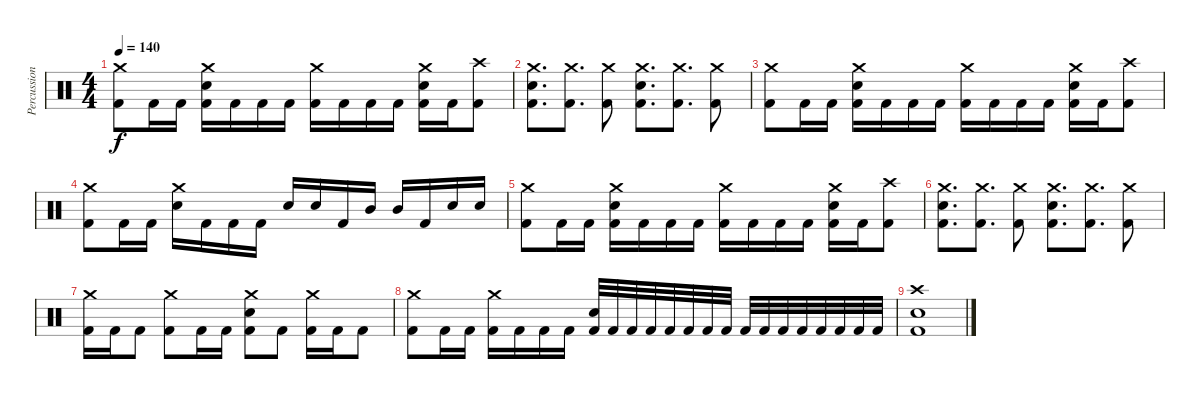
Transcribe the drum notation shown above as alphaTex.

\track ("Percussion" "Percussion") {instrument percussion}
\staff {score}
\articulation defaults
\ts (4 4)
\tempo 140
\clef neutral
\ks c
("Crash medium (hit)" "Kick (hit) 2").8{dy f} "Kick (hit) 2".16 "Kick (hit) 2".16 ("Crash medium (hit)" "Electric Snare (hit)" "Kick (hit) 2").16 "Kick (hit) 2".16 "Kick (hit) 2".16 "Kick (hit) 2".16 ("Crash medium (hit)" "Kick (hit) 2").16 "Kick (hit) 2".16 "Kick (hit) 2".16 "Kick (hit) 2".16 ("Crash medium (hit)" "Electric Snare (hit)" "Kick (hit) 2").16 "Kick (hit) 2".16 ("Crash high (hit)" "Kick (hit) 2").8 |
("Crash medium (hit)" "Electric Snare (hit)" "Kick (hit) 2").8{d} ("Crash medium (hit)" "Kick (hit) 2").8{d} ("Crash medium (hit)" "Kick (hit) 2").8 ("Crash medium (hit)" "Electric Snare (hit)" "Kick (hit) 2").8{d} ("Crash medium (hit)" "Kick (hit) 2").8{d} ("Crash medium (hit)" "Kick (hit) 2").8 |
("Crash medium (hit)" "Kick (hit) 2").8 "Kick (hit) 2".16 "Kick (hit) 2".16 ("Crash medium (hit)" "Electric Snare (hit)" "Kick (hit) 2").16 "Kick (hit) 2".16 "Kick (hit) 2".16 "Kick (hit) 2".16 ("Crash medium (hit)" "Kick (hit) 2").16 "Kick (hit) 2".16 "Kick (hit) 2".16 "Kick (hit) 2".16 ("Crash medium (hit)" "Electric Snare (hit)" "Kick (hit) 2").16 "Kick (hit) 2".16 ("Crash high (hit)" "Kick (hit) 2").8 |
("Crash medium (hit)" "Kick (hit) 2").8 "Kick (hit) 2".16 "Kick (hit) 2".16 ("Crash medium (hit)" "Electric Snare (hit)").16 "Kick (hit) 2".16 "Kick (hit) 2".16 "Kick (hit) 2".16 "Electric Snare (hit)".16 "Electric Snare (hit)".16 "Kick (hit) 2".16 "Mid Tom (hit)".16 "Mid Tom (hit)".16 "Kick (hit) 2".16 "Electric Snare (hit)".16 "Electric Snare (hit)".16 |
("Crash medium (hit)" "Kick (hit) 2").8 "Kick (hit) 2".16 "Kick (hit) 2".16 ("Crash medium (hit)" "Electric Snare (hit)" "Kick (hit) 2").16 "Kick (hit) 2".16 "Kick (hit) 2".16 "Kick (hit) 2".16 ("Crash medium (hit)" "Kick (hit) 2").16 "Kick (hit) 2".16 "Kick (hit) 2".16 "Kick (hit) 2".16 ("Crash medium (hit)" "Electric Snare (hit)" "Kick (hit) 2").16 "Kick (hit) 2".16 ("Crash high (hit)" "Kick (hit) 2").8 |
("Crash medium (hit)" "Electric Snare (hit)" "Kick (hit) 2").8{d} ("Crash medium (hit)" "Kick (hit) 2").8{d} ("Crash medium (hit)" "Kick (hit) 2").8 ("Crash medium (hit)" "Electric Snare (hit)" "Kick (hit) 2").8{d} ("Crash medium (hit)" "Kick (hit) 2").8{d} ("Crash medium (hit)" "Kick (hit) 2").8 |
("Crash medium (hit)" "Kick (hit) 2").16 "Kick (hit) 2".16 "Kick (hit) 2".8 ("Crash medium (hit)" "Kick (hit) 2").8 "Kick (hit) 2".16 "Kick (hit) 2".16 ("Crash medium (hit)" "Electric Snare (hit)" "Kick (hit) 2").8 "Kick (hit) 2".8 ("Crash medium (hit)" "Kick (hit) 2").16 "Kick (hit) 2".16 "Kick (hit) 2".8 |
("Crash medium (hit)" "Kick (hit) 2").8 "Kick (hit) 2".16 "Kick (hit) 2".16 ("Crash medium (hit)" "Kick (hit) 2").16 "Kick (hit) 2".16 "Kick (hit) 2".16 "Kick (hit) 2".16 ("Electric Snare (hit)" "Kick (hit) 2").32 "Kick (hit) 2".32 "Kick (hit) 2".32 "Kick (hit) 2".32 "Kick (hit) 2".32 "Kick (hit) 2".32 "Kick (hit) 2".32 "Kick (hit) 2".32 "Kick (hit) 2".32 "Kick (hit) 2".32 "Kick (hit) 2".32 "Kick (hit) 2".32 "Kick (hit) 2".32 "Kick (hit) 2".32 "Kick (hit) 2".32 "Kick (hit) 2".32 |
("Crash high (hit)" "Electric Snare (hit)" "Kick (hit) 2").1
